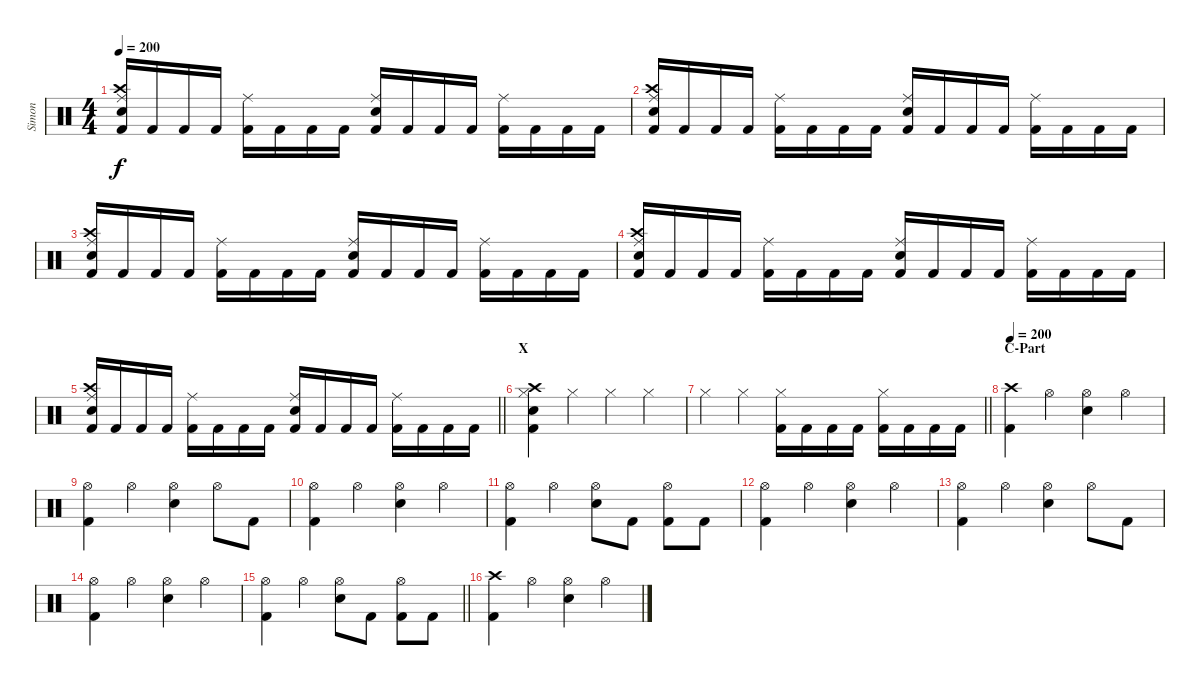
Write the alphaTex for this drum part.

\track ("Simon" "Simon") {instrument percussion}
\staff {score}
\articulation defaults
\ts (4 4)
\tempo 200
\clef neutral
\ks c
("Electric Snare (hit)" "Crash high (hit)" "Ride (middle)" "Kick (hit) 2").16{dy f} "Kick (hit) 2".16 "Kick (hit) 2".16 "Kick (hit) 2".16 ("Ride (middle)" "Kick (hit) 2").16 "Kick (hit) 2".16 "Kick (hit) 2".16 "Kick (hit) 2".16 ("Electric Snare (hit)" "Ride (middle)" "Kick (hit) 2").16 "Kick (hit) 2".16 "Kick (hit) 2".16 "Kick (hit) 2".16 ("Ride (middle)" "Kick (hit) 2").16 "Kick (hit) 2".16 "Kick (hit) 2".16 "Kick (hit) 2".16 |
("Electric Snare (hit)" "Crash high (hit)" "Ride (middle)" "Kick (hit) 2").16 "Kick (hit) 2".16 "Kick (hit) 2".16 "Kick (hit) 2".16 ("Ride (middle)" "Kick (hit) 2").16 "Kick (hit) 2".16 "Kick (hit) 2".16 "Kick (hit) 2".16 ("Electric Snare (hit)" "Ride (middle)" "Kick (hit) 2").16 "Kick (hit) 2".16 "Kick (hit) 2".16 "Kick (hit) 2".16 ("Ride (middle)" "Kick (hit) 2").16 "Kick (hit) 2".16 "Kick (hit) 2".16 "Kick (hit) 2".16 |
("Electric Snare (hit)" "Crash high (hit)" "Ride (middle)" "Kick (hit) 2").16 "Kick (hit) 2".16 "Kick (hit) 2".16 "Kick (hit) 2".16 ("Ride (middle)" "Kick (hit) 2").16 "Kick (hit) 2".16 "Kick (hit) 2".16 "Kick (hit) 2".16 ("Electric Snare (hit)" "Ride (middle)" "Kick (hit) 2").16 "Kick (hit) 2".16 "Kick (hit) 2".16 "Kick (hit) 2".16 ("Ride (middle)" "Kick (hit) 2").16 "Kick (hit) 2".16 "Kick (hit) 2".16 "Kick (hit) 2".16 |
("Electric Snare (hit)" "Crash high (hit)" "Ride (middle)" "Kick (hit) 2").16 "Kick (hit) 2".16 "Kick (hit) 2".16 "Kick (hit) 2".16 ("Ride (middle)" "Kick (hit) 2").16 "Kick (hit) 2".16 "Kick (hit) 2".16 "Kick (hit) 2".16 ("Electric Snare (hit)" "Ride (middle)" "Kick (hit) 2").16 "Kick (hit) 2".16 "Kick (hit) 2".16 "Kick (hit) 2".16 ("Ride (middle)" "Kick (hit) 2").16 "Kick (hit) 2".16 "Kick (hit) 2".16 "Kick (hit) 2".16 |
\barLineRight lightlight
("Electric Snare (hit)" "Crash high (hit)" "Ride (middle)" "Kick (hit) 2").16 "Kick (hit) 2".16 "Kick (hit) 2".16 "Kick (hit) 2".16 ("Ride (middle)" "Kick (hit) 2").16 "Kick (hit) 2".16 "Kick (hit) 2".16 "Kick (hit) 2".16 ("Electric Snare (hit)" "Ride (middle)" "Kick (hit) 2").16 "Kick (hit) 2".16 "Kick (hit) 2".16 "Kick (hit) 2".16 ("Ride (middle)" "Kick (hit) 2").16 "Kick (hit) 2".16 "Kick (hit) 2".16 "Kick (hit) 2".16 |
\section ("" "X")
("Crash high (hit)" "Hi-Hat (closed)" "Kick (hit) 2" "Electric Snare (hit)").4 "Hi-Hat (closed)".4 "Hi-Hat (closed)".4 "Hi-Hat (closed)".4 |
\barLineRight lightlight "Hi-Hat (closed)".4 "Hi-Hat (closed)".4
("Hi-Hat (closed)" "Kick (hit) 2").16 "Kick (hit) 2".16 "Kick (hit) 2".16 "Kick (hit) 2".16 ("Hi-Hat (closed)" "Kick (hit) 2").16 "Kick (hit) 2".16 "Kick (hit) 2".16 "Kick (hit) 2".16 |
\section ("" "C-Part")
\tempo 200
("Crash high (hit)" "Kick (hit) 2").4 "Hi-Hat (open)".4 ("Hi-Hat (open)" "Electric Snare (hit)").4 "Hi-Hat (open)".4 |
("Hi-Hat (open)" "Kick (hit) 2").4 "Hi-Hat (open)".4 ("Hi-Hat (open)" "Electric Snare (hit)").4 "Hi-Hat (open)".8 "Kick (hit) 2".8 |
("Hi-Hat (open)" "Kick (hit) 2").4 "Hi-Hat (open)".4 ("Hi-Hat (open)" "Electric Snare (hit)").4 "Hi-Hat (open)".4 |
("Hi-Hat (open)" "Kick (hit) 2").4 "Hi-Hat (open)".4 ("Hi-Hat (open)" "Electric Snare (hit)").8 "Kick (hit) 2".8 ("Hi-Hat (open)" "Kick (hit) 2").8 "Kick (hit) 2".8 |
("Hi-Hat (open)" "Kick (hit) 2").4 "Hi-Hat (open)".4 ("Hi-Hat (open)" "Electric Snare (hit)").4 "Hi-Hat (open)".4 |
("Hi-Hat (open)" "Kick (hit) 2").4 "Hi-Hat (open)".4 ("Hi-Hat (open)" "Electric Snare (hit)").4 "Hi-Hat (open)".8 "Kick (hit) 2".8 |
("Hi-Hat (open)" "Kick (hit) 2").4 "Hi-Hat (open)".4 ("Hi-Hat (open)" "Electric Snare (hit)").4 "Hi-Hat (open)".4 |
\barLineRight lightlight
("Hi-Hat (open)" "Kick (hit) 2").4 "Hi-Hat (open)".4 ("Hi-Hat (open)" "Electric Snare (hit)").8 "Kick (hit) 2".8 ("Hi-Hat (open)" "Kick (hit) 2").8 "Kick (hit) 2".8 |
("Crash high (hit)" "Kick (hit) 2").4 "Hi-Hat (open)".4 ("Hi-Hat (open)" "Electric Snare (hit)").4 "Hi-Hat (open)".4
